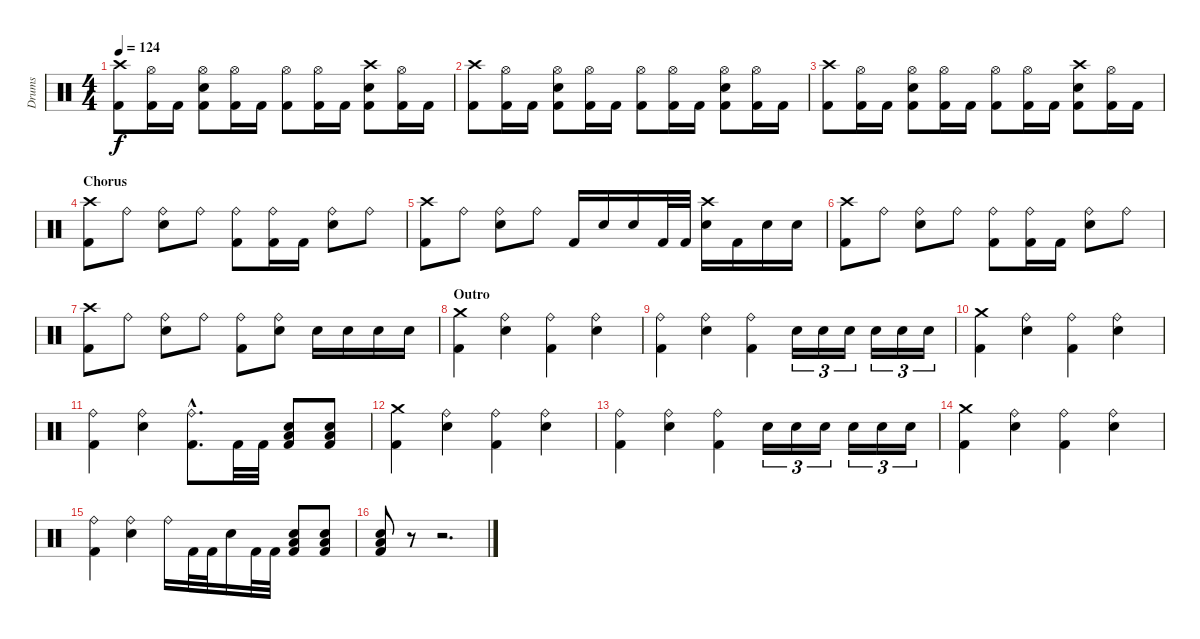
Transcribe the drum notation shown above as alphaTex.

\track ("Drums" "Drums") {instrument percussion}
\staff {score}
\articulation defaults
\ts (4 4)
\tempo 124
\clef neutral
\ks c
("Crash high (hit)" "Kick (hit) 2").8{dy f} ("Hi-Hat (open)" "Kick (hit) 2").16 "Kick (hit) 2".16 ("Hi-Hat (open)" "Electric Snare (hit)" "Kick (hit) 2").8 ("Hi-Hat (open)" "Kick (hit) 2").16 "Kick (hit) 2".16 ("Hi-Hat (open)" "Kick (hit) 2").8 ("Hi-Hat (open)" "Kick (hit) 2").16 "Kick (hit) 2".16 ("Crash high (hit)" "Electric Snare (hit)" "Kick (hit) 2").8 ("Hi-Hat (open)" "Kick (hit) 2").16 "Kick (hit) 2".16 |
\section ("" "")
("Crash high (hit)" "Kick (hit) 2").8 ("Hi-Hat (open)" "Kick (hit) 2").16 "Kick (hit) 2".16 ("Hi-Hat (open)" "Electric Snare (hit)" "Kick (hit) 2").8 ("Hi-Hat (open)" "Kick (hit) 2").16 "Kick (hit) 2".16 ("Hi-Hat (open)" "Kick (hit) 2").8 ("Hi-Hat (open)" "Kick (hit) 2").16 "Kick (hit) 2".16 ("Hi-Hat (open)" "Electric Snare (hit)" "Kick (hit) 2").8 ("Hi-Hat (open)" "Kick (hit) 2").16 "Kick (hit) 2".16 |
("Crash high (hit)" "Kick (hit) 2").8 ("Hi-Hat (open)" "Kick (hit) 2").16 "Kick (hit) 2".16 ("Hi-Hat (open)" "Electric Snare (hit)" "Kick (hit) 2").8 ("Hi-Hat (open)" "Kick (hit) 2").16 "Kick (hit) 2".16 ("Hi-Hat (open)" "Kick (hit) 2").8 ("Hi-Hat (open)" "Kick (hit) 2").16 "Kick (hit) 2".16 ("Crash high (hit)" "Electric Snare (hit)" "Kick (hit) 2").8 ("Hi-Hat (open)" "Kick (hit) 2").16 "Kick (hit) 2".16 |
\section ("" "Chorus")
("Crash high (hit)" "Kick (hit) 2").8 "Ride (bell)".8 ("Ride (bell)" "Electric Snare (hit)").8 "Ride (bell)".8 ("Ride (bell)" "Kick (hit) 2").8 ("Ride (bell)" "Kick (hit) 2").16 "Kick (hit) 2".16 ("Ride (bell)" "Electric Snare (hit)").8 "Ride (bell)".8 |
("Crash high (hit)" "Kick (hit) 2").8 "Ride (bell)".8 ("Ride (bell)" "Electric Snare (hit)").8 "Ride (bell)".8 "Kick (hit) 2".16 "Electric Snare (hit)".16 "Electric Snare (hit)".16 "Kick (hit) 2".32 "Kick (hit) 2".32 ("Crash high (hit)" "Electric Snare (hit)").16 "Kick (hit) 2".16 "Electric Snare (hit)".16 "Electric Snare (hit)".16 |
("Crash high (hit)" "Kick (hit) 2").8 "Ride (bell)".8 ("Ride (bell)" "Electric Snare (hit)").8 "Ride (bell)".8 ("Ride (bell)" "Kick (hit) 2").8 ("Ride (bell)" "Kick (hit) 2").16 "Kick (hit) 2".16 ("Ride (bell)" "Electric Snare (hit)").8 "Ride (bell)".8 |
("Crash high (hit)" "Kick (hit) 2").8 "Ride (bell)".8 ("Ride (bell)" "Electric Snare (hit)").8 "Ride (bell)".8 ("Ride (bell)" "Kick (hit) 2").8 ("Ride (bell)" "Electric Snare (hit)").8 "Electric Snare (hit)".16 "Electric Snare (hit)".16 "Electric Snare (hit)".16 "Electric Snare (hit)".16 |
\section ("" "Outro")
("Crash medium (hit)" "Kick (hit) 2").4 ("Ride (bell)" "Electric Snare (hit)").4 ("Ride (bell)" "Kick (hit) 2").4 ("Ride (bell)" "Electric Snare (hit)").4 |
("Ride (bell)" "Kick (hit) 2").4 ("Ride (bell)" "Electric Snare (hit)").4 ("Ride (bell)" "Kick (hit) 2").4 "Electric Snare (hit)".16{tu (3 2)} "Electric Snare (hit)".16{tu (3 2)} "Electric Snare (hit)".16{tu (3 2)} "Electric Snare (hit)".16{tu (3 2)} "Electric Snare (hit)".16{tu (3 2)} "Electric Snare (hit)".16{tu (3 2)} |
("Crash medium (hit)" "Kick (hit) 2").4 ("Ride (bell)" "Electric Snare (hit)").4 ("Ride (bell)" "Kick (hit) 2").4 ("Ride (bell)" "Electric Snare (hit)").4 |
("Ride (bell)" "Kick (hit) 2").4 ("Ride (bell)" "Electric Snare (hit)").4 ("Ride (bell)"{hac} "Kick (hit) 2"{hac}).8{d} "Kick (hit) 2".32 "Kick (hit) 2".32 ("Electric Snare (hit)" "Low Floor Tom (hit)" "Kick (hit) 2").8 ("Electric Snare (hit)" "Low Floor Tom (hit)" "Kick (hit) 2").8 |
("Crash medium (hit)" "Kick (hit) 2").4 ("Ride (bell)" "Electric Snare (hit)").4 ("Ride (bell)" "Kick (hit) 2").4 ("Ride (bell)" "Electric Snare (hit)").4 |
("Ride (bell)" "Kick (hit) 2").4 ("Ride (bell)" "Electric Snare (hit)").4 ("Ride (bell)" "Kick (hit) 2").4 "Electric Snare (hit)".16{tu (3 2)} "Electric Snare (hit)".16{tu (3 2)} "Electric Snare (hit)".16{tu (3 2)} "Electric Snare (hit)".16{tu (3 2)} "Electric Snare (hit)".16{tu (3 2)} "Electric Snare (hit)".16{tu (3 2)} |
("Crash medium (hit)" "Kick (hit) 2").4 ("Ride (bell)" "Electric Snare (hit)").4 ("Ride (bell)" "Kick (hit) 2").4 ("Ride (bell)" "Electric Snare (hit)").4 |
("Ride (bell)" "Kick (hit) 2").4 ("Ride (bell)" "Electric Snare (hit)").4 "Ride (bell)".16 "Kick (hit) 2".32 "Kick (hit) 2".32 "Electric Snare (hit)".16 "Kick (hit) 2".32 "Kick (hit) 2".32 ("Electric Snare (hit)" "Low Floor Tom (hit)" "Kick (hit) 2").8 ("Electric Snare (hit)" "Low Floor Tom (hit)" "Kick (hit) 2").8 |
("Electric Snare (hit)" "Low Floor Tom (hit)" "Kick (hit) 2").8 r.8 r.2{d}
